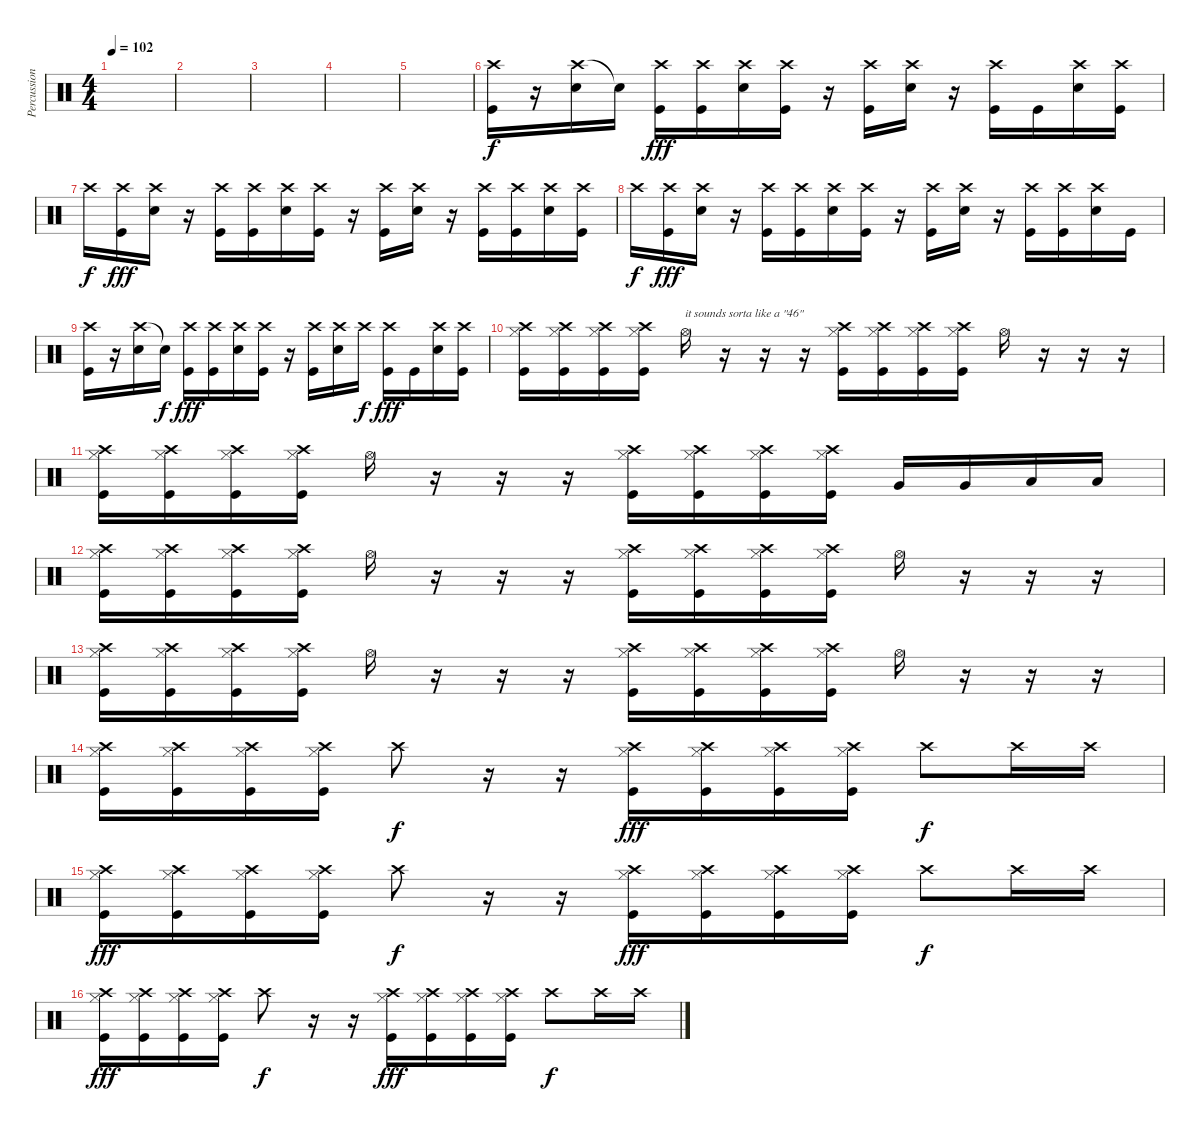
\track ("Percussion" "Percussion") {instrument percussion}
\staff {score}
\articulation defaults
\ts (4 4)
\tempo 102
\clef neutral
\ks c
|
|
|
|
|
("Crash high (hit)" "Kick (hit)").16 r.16 ("Crash high (hit)" "Electric Snare (hit)").16 "Snare (hit)"{t}.16{dy f} ("Crash high (hit)" "Kick (hit)").16{dy fff} ("Crash high (hit)" "Kick (hit)").16 ("Crash high (hit)" "Electric Snare (hit)").16 ("Crash high (hit)" "Kick (hit)").16 r.16 ("Crash high (hit)" "Kick (hit)").16 ("Crash high (hit)" "Electric Snare (hit)").16 r.16 ("Crash high (hit)" "Kick (hit)").16 "Kick (hit)".16 ("Crash high (hit)" "Electric Snare (hit)").16 ("Crash high (hit)" "Kick (hit)").16 |
"Crash high (hit)".16{dy f} ("Crash high (hit)" "Kick (hit)").16{dy fff} ("Crash high (hit)" "Electric Snare (hit)").16 r.16 ("Crash high (hit)" "Kick (hit)").16 ("Crash high (hit)" "Kick (hit)").16 ("Crash high (hit)" "Electric Snare (hit)").16 ("Crash high (hit)" "Kick (hit)").16 r.16 ("Crash high (hit)" "Kick (hit)").16 ("Crash high (hit)" "Electric Snare (hit)").16 r.16 ("Crash high (hit)" "Kick (hit)").16 ("Crash high (hit)" "Kick (hit)").16 ("Crash high (hit)" "Electric Snare (hit)").16 ("Crash high (hit)" "Kick (hit)").16 |
"Crash high (hit)".16{dy f} ("Crash high (hit)" "Kick (hit)").16{dy fff} ("Crash high (hit)" "Electric Snare (hit)").16 r.16 ("Crash high (hit)" "Kick (hit)").16 ("Crash high (hit)" "Kick (hit)").16 ("Crash high (hit)" "Electric Snare (hit)").16 ("Crash high (hit)" "Kick (hit)").16 r.16 ("Crash high (hit)" "Kick (hit)").16 ("Crash high (hit)" "Electric Snare (hit)").16 r.16 ("Crash high (hit)" "Kick (hit)").16 ("Crash high (hit)" "Kick (hit)").16 ("Crash high (hit)" "Electric Snare (hit)").16 "Kick (hit)".16 |
("Crash high (hit)" "Kick (hit)").16 r.16 ("Crash high (hit)" "Electric Snare (hit)").16 "Snare (hit)"{t}.16{dy f} ("Crash high (hit)" "Kick (hit)").16{dy fff} ("Crash high (hit)" "Kick (hit)").16 ("Crash high (hit)" "Electric Snare (hit)").16 ("Crash high (hit)" "Kick (hit)").16 r.16 ("Crash high (hit)" "Kick (hit)").16 ("Crash high (hit)" "Electric Snare (hit)").16 "Crash high (hit)".16{dy f} ("Crash high (hit)" "Kick (hit)").16{dy fff} "Kick (hit)".16 ("Crash high (hit)" "Electric Snare (hit)").16 ("Crash high (hit)" "Kick (hit)").16 |
("Crash high (hit)" "Hi-Hat (closed)" "Kick (hit)").16 ("Crash high (hit)" "Hi-Hat (closed)" "Kick (hit)").16 ("Crash high (hit)" "Hi-Hat (closed)" "Kick (hit)").16 ("Crash high (hit)" "Hi-Hat (closed)" "Kick (hit)").16 "Hi-Hat (open)".16{txt "it sounds sorta like a \"46\""} r.16 r.16 r.16 ("Crash high (hit)" "Hi-Hat (closed)" "Kick (hit)").16 ("Crash high (hit)" "Hi-Hat (closed)" "Kick (hit)").16 ("Crash high (hit)" "Hi-Hat (closed)" "Kick (hit)").16 ("Crash high (hit)" "Hi-Hat (closed)" "Kick (hit)").16 "Hi-Hat (open)".16 r.16 r.16 r.16 |
("Crash high (hit)" "Hi-Hat (closed)" "Kick (hit)").16 ("Crash high (hit)" "Hi-Hat (closed)" "Kick (hit)").16 ("Crash high (hit)" "Hi-Hat (closed)" "Kick (hit)").16 ("Crash high (hit)" "Hi-Hat (closed)" "Kick (hit)").16 "Hi-Hat (open)".16 r.16 r.16 r.16 ("Crash high (hit)" "Hi-Hat (closed)" "Kick (hit)").16 ("Crash high (hit)" "Hi-Hat (closed)" "Kick (hit)").16 ("Crash high (hit)" "Hi-Hat (closed)" "Kick (hit)").16 ("Crash high (hit)" "Hi-Hat (closed)" "Kick (hit)").16 "Very Low Tom (hit)".16 "Very Low Tom (hit)".16 "Low Floor Tom (hit)".16 "Low Floor Tom (hit)".16 |
("Crash high (hit)" "Hi-Hat (closed)" "Kick (hit)").16 ("Crash high (hit)" "Hi-Hat (closed)" "Kick (hit)").16 ("Crash high (hit)" "Hi-Hat (closed)" "Kick (hit)").16 ("Crash high (hit)" "Hi-Hat (closed)" "Kick (hit)").16 "Hi-Hat (open)".16 r.16 r.16 r.16 ("Crash high (hit)" "Hi-Hat (closed)" "Kick (hit)").16 ("Crash high (hit)" "Hi-Hat (closed)" "Kick (hit)").16 ("Crash high (hit)" "Hi-Hat (closed)" "Kick (hit)").16 ("Crash high (hit)" "Hi-Hat (closed)" "Kick (hit)").16 "Hi-Hat (open)".16 r.16 r.16 r.16 |
("Crash high (hit)" "Hi-Hat (closed)" "Kick (hit)").16 ("Crash high (hit)" "Hi-Hat (closed)" "Kick (hit)").16 ("Crash high (hit)" "Hi-Hat (closed)" "Kick (hit)").16 ("Crash high (hit)" "Hi-Hat (closed)" "Kick (hit)").16 "Hi-Hat (open)".16 r.16 r.16 r.16 ("Crash high (hit)" "Hi-Hat (closed)" "Kick (hit)").16 ("Crash high (hit)" "Hi-Hat (closed)" "Kick (hit)").16 ("Crash high (hit)" "Hi-Hat (closed)" "Kick (hit)").16 ("Crash high (hit)" "Hi-Hat (closed)" "Kick (hit)").16 "Hi-Hat (open)".16 r.16 r.16 r.16 |
("Crash high (hit)" "Hi-Hat (closed)" "Kick (hit)").16 ("Crash high (hit)" "Hi-Hat (closed)" "Kick (hit)").16 ("Crash high (hit)" "Hi-Hat (closed)" "Kick (hit)").16 ("Crash high (hit)" "Hi-Hat (closed)" "Kick (hit)").16 "Crash high (hit)".8{dy f} r.16 r.16 ("Crash high (hit)" "Hi-Hat (closed)" "Kick (hit)").16{dy fff} ("Crash high (hit)" "Hi-Hat (closed)" "Kick (hit)").16 ("Crash high (hit)" "Hi-Hat (closed)" "Kick (hit)").16 ("Crash high (hit)" "Hi-Hat (closed)" "Kick (hit)").16 "Crash high (hit)".8{dy f} "Crash high (hit)".16 "Crash high (hit)".16 |
("Crash high (hit)" "Hi-Hat (closed)" "Kick (hit)").16{dy fff} ("Crash high (hit)" "Hi-Hat (closed)" "Kick (hit)").16 ("Crash high (hit)" "Hi-Hat (closed)" "Kick (hit)").16 ("Crash high (hit)" "Hi-Hat (closed)" "Kick (hit)").16 "Crash high (hit)".8{dy f} r.16 r.16 ("Crash high (hit)" "Hi-Hat (closed)" "Kick (hit)").16{dy fff} ("Crash high (hit)" "Hi-Hat (closed)" "Kick (hit)").16 ("Crash high (hit)" "Hi-Hat (closed)" "Kick (hit)").16 ("Crash high (hit)" "Hi-Hat (closed)" "Kick (hit)").16 "Crash high (hit)".8{dy f} "Crash high (hit)".16 "Crash high (hit)".16 |
("Crash high (hit)" "Hi-Hat (closed)" "Kick (hit)").16{dy fff} ("Crash high (hit)" "Hi-Hat (closed)" "Kick (hit)").16 ("Crash high (hit)" "Hi-Hat (closed)" "Kick (hit)").16 ("Crash high (hit)" "Hi-Hat (closed)" "Kick (hit)").16 "Crash high (hit)".8{dy f} r.16 r.16 ("Crash high (hit)" "Hi-Hat (closed)" "Kick (hit)").16{dy fff} ("Crash high (hit)" "Hi-Hat (closed)" "Kick (hit)").16 ("Crash high (hit)" "Hi-Hat (closed)" "Kick (hit)").16 ("Crash high (hit)" "Hi-Hat (closed)" "Kick (hit)").16 "Crash high (hit)".8{dy f} "Crash high (hit)".16 "Crash high (hit)".16
